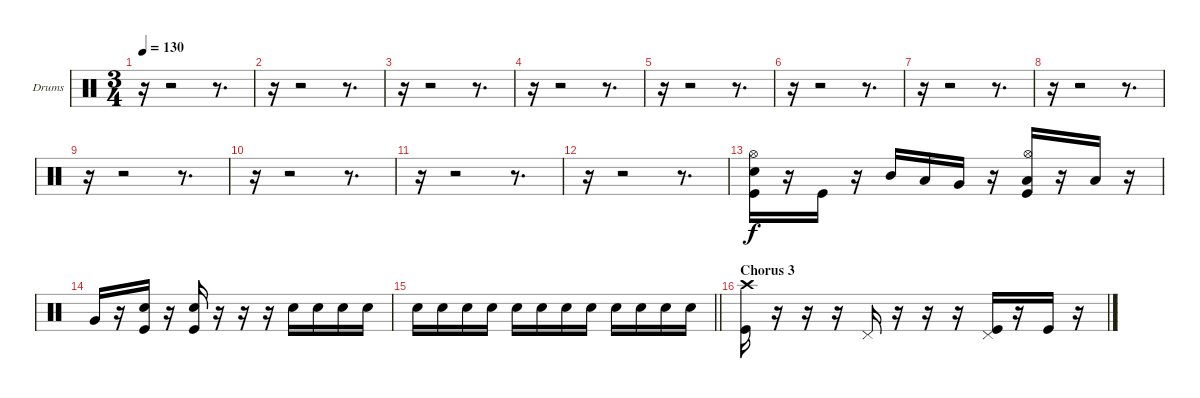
\bracketExtendMode groupsimilarinstruments
\firstSystemTrackNameOrientation horizontal
\otherSystemsTrackNameOrientation horizontal
\track ("Drumkit" "Drums") {instrument percussion}
\staff {score}
\articulation defaults
\ts (3 4)
\tempo 130
\clef neutral
\ks c
r.16{dy f} r.2 r.8{d} |
r.16 r.2 r.8{d} |
r.16 r.2 r.8{d} |
r.16 r.2 r.8{d} |
r.16 r.2 r.8{d} |
r.16 r.2 r.8{d} |
r.16 r.2 r.8{d} |
r.16 r.2 r.8{d} |
r.16 r.2 r.8{d} |
r.16 r.2 r.8{d} |
r.16 r.2 r.8{d} |
r.16 r.2 r.8{d} |
("Kick (hit)" "Snare (hit) 2" "Hi-Hat (open)").16 r.16 "Kick (hit)".16 r.16 "Mid Tom (hit)".16 "Low Tom (hit)".16 "Very Low Tom (hit)".16 r.16 ("Kick (hit)" "Low Tom (hit)" "Hi-Hat (open)").16 r.16 "Low Tom (hit)".16 r.16 |
"Very Low Tom (hit)".16 r.16 ("Kick (hit)" "Snare (hit) 2").16 r.16 ("Kick (hit)" "Snare (hit) 2").16 r.16 r.16 r.16 "Snare (hit) 2".16 "Snare (hit) 2".16 "Snare (hit) 2".16 "Snare (hit) 2".16 |
\barLineRight lightlight "Snare (hit) 2".16 "Snare (hit) 2".16 "Snare (hit) 2".16 "Snare (hit) 2".16 "Snare (hit) 2".16 "Snare (hit) 2".16 "Snare (hit) 2".16 "Snare (hit) 2".16 "Snare (hit) 2".16 "Snare (hit) 2".16 "Snare (hit) 2".16 "Snare (hit) 2".16
|
\section ("" "Chorus 3")
("Kick (hit)" "Crash high (hit)").16 r.16 r.16 r.16 "Pedal Hi-Hat (hit)".16 r.16 r.16 r.16 ("Kick (hit)" "Pedal Hi-Hat (hit)").16 r.16 "Kick (hit)".16 r.16
